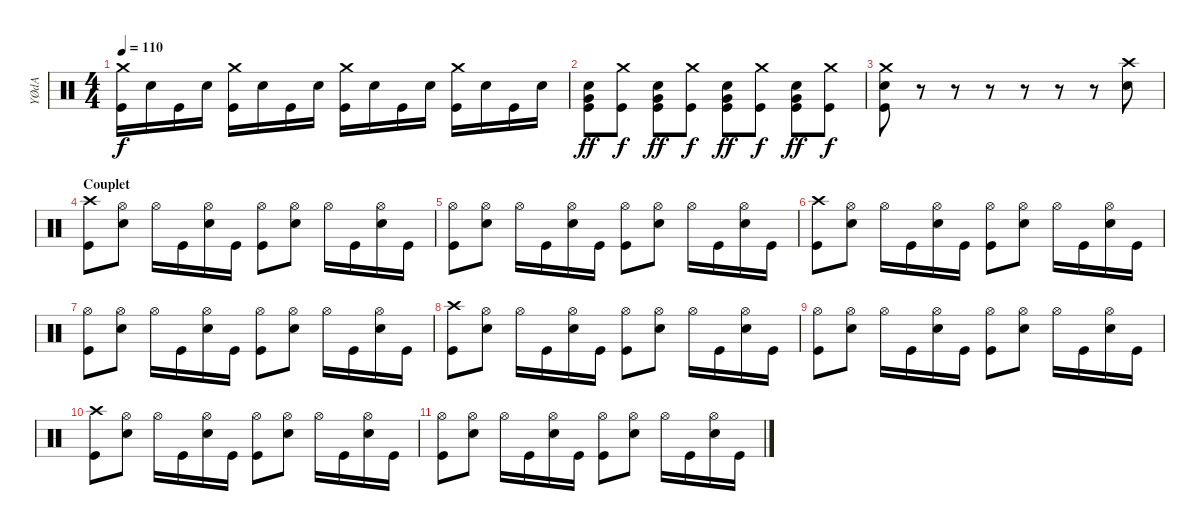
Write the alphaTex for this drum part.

\track ("YØdA" "YØdA") {instrument percussion}
\staff {score}
\articulation defaults
\ts (4 4)
\tempo 110
\clef neutral
\ks c
("Crash medium (hit)" "Kick (hit)").16{dy f} "Electric Snare (hit)".16 "Kick (hit)".16 "Electric Snare (hit)".16 ("Crash medium (hit)" "Kick (hit)").16 "Electric Snare (hit)".16 "Kick (hit)".16 "Electric Snare (hit)".16 ("Crash medium (hit)" "Kick (hit)").16 "Electric Snare (hit)".16 "Kick (hit)".16 "Electric Snare (hit)".16 ("Crash medium (hit)" "Kick (hit)").16 "Electric Snare (hit)".16 "Kick (hit)".16 "Electric Snare (hit)".16 |
("Very Low Tom (hit)" "Electric Snare (hit)" "Kick (hit)").8{dy ff} ("Crash medium (hit)" "Kick (hit)").8{dy f} ("Very Low Tom (hit)" "Electric Snare (hit)" "Kick (hit)").8{dy ff} ("Crash medium (hit)" "Kick (hit)").8{dy f} ("Very Low Tom (hit)" "Electric Snare (hit)" "Kick (hit)").8{dy ff} ("Crash medium (hit)" "Kick (hit)").8{dy f} ("Very Low Tom (hit)" "Electric Snare (hit)" "Kick (hit)").8{dy ff} ("Crash medium (hit)" "Kick (hit)").8{dy f} |
("Crash medium (hit)" "Electric Snare (hit)" "Kick (hit)").8 r.8 r.8 r.8 r.8 r.8 r.8 ("Crash high (hit)" "Electric Snare (hit)").8 |
\section ("" "Couplet")
("Crash high (hit)" "Kick (hit)").8 ("Hi-Hat (open)" "Electric Snare (hit)").8 "Hi-Hat (open)".16 "Kick (hit)".16 ("Hi-Hat (open)" "Electric Snare (hit)").16 "Kick (hit)".16 ("Hi-Hat (open)" "Kick (hit)").8 ("Hi-Hat (open)" "Electric Snare (hit)").8 "Hi-Hat (open)".16 "Kick (hit)".16 ("Hi-Hat (open)" "Electric Snare (hit)").16 "Kick (hit)".16 |
("Hi-Hat (open)" "Kick (hit)").8 ("Hi-Hat (open)" "Electric Snare (hit)").8 "Hi-Hat (open)".16 "Kick (hit)".16 ("Hi-Hat (open)" "Electric Snare (hit)").16 "Kick (hit)".16 ("Hi-Hat (open)" "Kick (hit)").8 ("Hi-Hat (open)" "Electric Snare (hit)").8 "Hi-Hat (open)".16 "Kick (hit)".16 ("Hi-Hat (open)" "Electric Snare (hit)").16 "Kick (hit)".16 |
("Crash high (hit)" "Kick (hit)").8 ("Hi-Hat (open)" "Electric Snare (hit)").8 "Hi-Hat (open)".16 "Kick (hit)".16 ("Hi-Hat (open)" "Electric Snare (hit)").16 "Kick (hit)".16 ("Hi-Hat (open)" "Kick (hit)").8 ("Hi-Hat (open)" "Electric Snare (hit)").8 "Hi-Hat (open)".16 "Kick (hit)".16 ("Hi-Hat (open)" "Electric Snare (hit)").16 "Kick (hit)".16 |
("Hi-Hat (open)" "Kick (hit)").8 ("Hi-Hat (open)" "Electric Snare (hit)").8 "Hi-Hat (open)".16 "Kick (hit)".16 ("Hi-Hat (open)" "Electric Snare (hit)").16 "Kick (hit)".16 ("Hi-Hat (open)" "Kick (hit)").8 ("Hi-Hat (open)" "Electric Snare (hit)").8 "Hi-Hat (open)".16 "Kick (hit)".16 ("Hi-Hat (open)" "Electric Snare (hit)").16 "Kick (hit)".16 |
("Crash high (hit)" "Kick (hit)").8 ("Hi-Hat (open)" "Electric Snare (hit)").8 "Hi-Hat (open)".16 "Kick (hit)".16 ("Hi-Hat (open)" "Electric Snare (hit)").16 "Kick (hit)".16 ("Hi-Hat (open)" "Kick (hit)").8 ("Hi-Hat (open)" "Electric Snare (hit)").8 "Hi-Hat (open)".16 "Kick (hit)".16 ("Hi-Hat (open)" "Electric Snare (hit)").16 "Kick (hit)".16 |
("Hi-Hat (open)" "Kick (hit)").8 ("Hi-Hat (open)" "Electric Snare (hit)").8 "Hi-Hat (open)".16 "Kick (hit)".16 ("Hi-Hat (open)" "Electric Snare (hit)").16 "Kick (hit)".16 ("Hi-Hat (open)" "Kick (hit)").8 ("Hi-Hat (open)" "Electric Snare (hit)").8 "Hi-Hat (open)".16 "Kick (hit)".16 ("Hi-Hat (open)" "Electric Snare (hit)").16 "Kick (hit)".16 |
("Crash high (hit)" "Kick (hit)").8 ("Hi-Hat (open)" "Electric Snare (hit)").8 "Hi-Hat (open)".16 "Kick (hit)".16 ("Hi-Hat (open)" "Electric Snare (hit)").16 "Kick (hit)".16 ("Hi-Hat (open)" "Kick (hit)").8 ("Hi-Hat (open)" "Electric Snare (hit)").8 "Hi-Hat (open)".16 "Kick (hit)".16 ("Hi-Hat (open)" "Electric Snare (hit)").16 "Kick (hit)".16 |
("Hi-Hat (open)" "Kick (hit)").8 ("Hi-Hat (open)" "Electric Snare (hit)").8 "Hi-Hat (open)".16 "Kick (hit)".16 ("Hi-Hat (open)" "Electric Snare (hit)").16 "Kick (hit)".16 ("Hi-Hat (open)" "Kick (hit)").8 ("Hi-Hat (open)" "Electric Snare (hit)").8 "Hi-Hat (open)".16 "Kick (hit)".16 ("Hi-Hat (open)" "Electric Snare (hit)").16 "Kick (hit)".16
